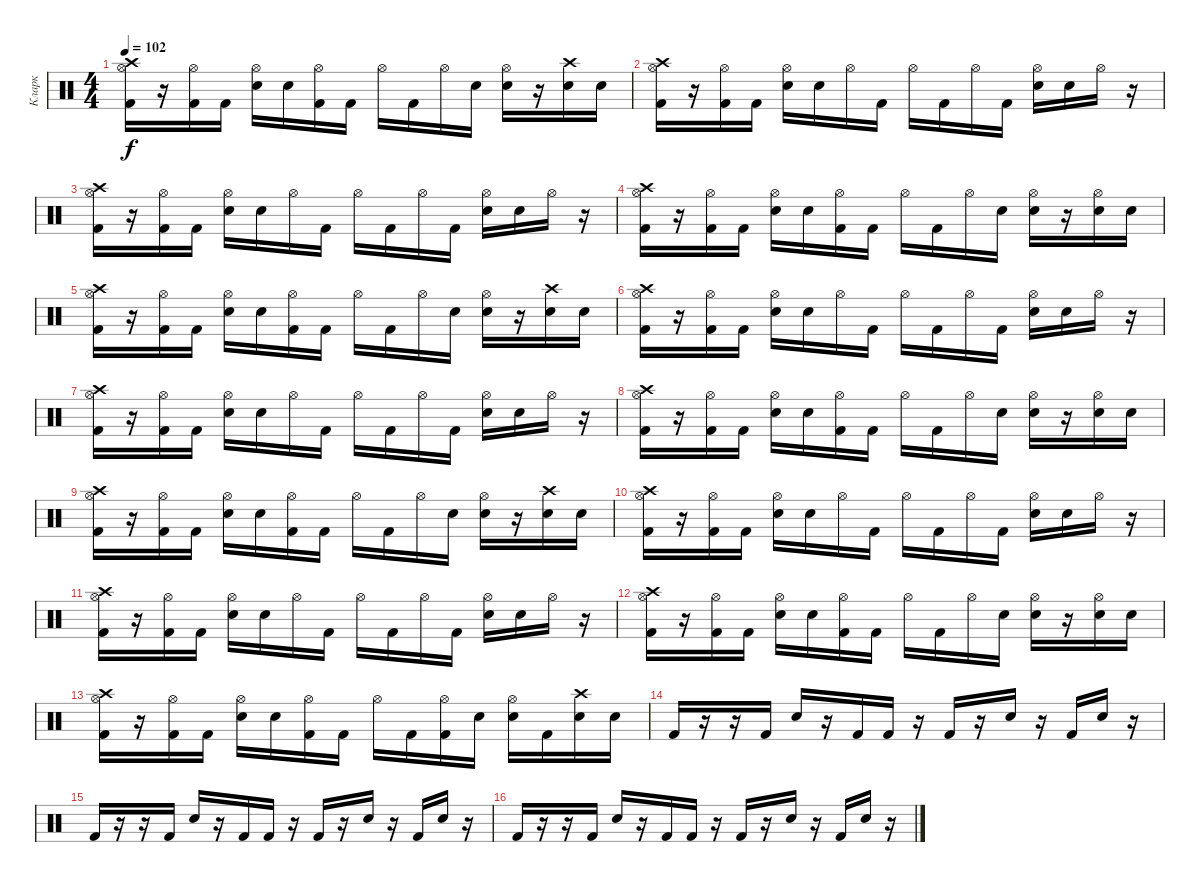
\track ("Кларк" "Кларк") {instrument percussion}
\staff {score}
\articulation defaults
\ts (4 4)
\tempo 102
\clef neutral
\ks c
("Hi-Hat (open)" "Crash high (hit)" "Kick (hit) 2").16{dy f} r.16 ("Hi-Hat (open)" "Kick (hit) 2").16 "Kick (hit) 2".16 ("Hi-Hat (open)" "Electric Snare (hit)").16 "Electric Snare (hit)".16 ("Hi-Hat (open)" "Kick (hit) 2").16 "Kick (hit) 2".16 "Hi-Hat (open)".16 "Kick (hit) 2".16 "Hi-Hat (open)".16 "Electric Snare (hit)".16 ("Hi-Hat (open)" "Electric Snare (hit)").16 r.16 ("Crash high (hit)" "Electric Snare (hit)").16 "Electric Snare (hit)".16 |
("Hi-Hat (open)" "Crash high (hit)" "Kick (hit) 2").16 r.16 ("Hi-Hat (open)" "Kick (hit) 2").16 "Kick (hit) 2".16 ("Hi-Hat (open)" "Electric Snare (hit)").16 "Electric Snare (hit)".16 "Hi-Hat (open)".16 "Kick (hit) 2".16 "Hi-Hat (open)".16 "Kick (hit) 2".16 "Hi-Hat (open)".16 "Kick (hit) 2".16 ("Hi-Hat (open)" "Electric Snare (hit)").16 "Electric Snare (hit)".16 "Hi-Hat (open)".16 r.16 |
("Hi-Hat (open)" "Crash high (hit)" "Kick (hit) 2").16 r.16 ("Hi-Hat (open)" "Kick (hit) 2").16 "Kick (hit) 2".16 ("Hi-Hat (open)" "Electric Snare (hit)").16 "Electric Snare (hit)".16 "Hi-Hat (open)".16 "Kick (hit) 2".16 "Hi-Hat (open)".16 "Kick (hit) 2".16 "Hi-Hat (open)".16 "Kick (hit) 2".16 ("Hi-Hat (open)" "Electric Snare (hit)").16 "Electric Snare (hit)".16 "Hi-Hat (open)".16 r.16 |
("Hi-Hat (open)" "Crash high (hit)" "Kick (hit) 2").16 r.16 ("Hi-Hat (open)" "Kick (hit) 2").16 "Kick (hit) 2".16 ("Hi-Hat (open)" "Electric Snare (hit)").16 "Electric Snare (hit)".16 ("Hi-Hat (open)" "Kick (hit) 2").16 "Kick (hit) 2".16 "Hi-Hat (open)".16 "Kick (hit) 2".16 "Hi-Hat (open)".16 "Electric Snare (hit)".16 ("Hi-Hat (open)" "Electric Snare (hit)").16 r.16 ("Hi-Hat (open)" "Electric Snare (hit)").16 "Electric Snare (hit)".16 |
("Hi-Hat (open)" "Crash high (hit)" "Kick (hit) 2").16 r.16 ("Hi-Hat (open)" "Kick (hit) 2").16 "Kick (hit) 2".16 ("Hi-Hat (open)" "Electric Snare (hit)").16 "Electric Snare (hit)".16 ("Hi-Hat (open)" "Kick (hit) 2").16 "Kick (hit) 2".16 "Hi-Hat (open)".16 "Kick (hit) 2".16 "Hi-Hat (open)".16 "Electric Snare (hit)".16 ("Hi-Hat (open)" "Electric Snare (hit)").16 r.16 ("Crash high (hit)" "Electric Snare (hit)").16 "Electric Snare (hit)".16 |
("Hi-Hat (open)" "Crash high (hit)" "Kick (hit) 2").16 r.16 ("Hi-Hat (open)" "Kick (hit) 2").16 "Kick (hit) 2".16 ("Hi-Hat (open)" "Electric Snare (hit)").16 "Electric Snare (hit)".16 "Hi-Hat (open)".16 "Kick (hit) 2".16 "Hi-Hat (open)".16 "Kick (hit) 2".16 "Hi-Hat (open)".16 "Kick (hit) 2".16 ("Hi-Hat (open)" "Electric Snare (hit)").16 "Electric Snare (hit)".16 "Hi-Hat (open)".16 r.16 |
("Hi-Hat (open)" "Crash high (hit)" "Kick (hit) 2").16 r.16 ("Hi-Hat (open)" "Kick (hit) 2").16 "Kick (hit) 2".16 ("Hi-Hat (open)" "Electric Snare (hit)").16 "Electric Snare (hit)".16 "Hi-Hat (open)".16 "Kick (hit) 2".16 "Hi-Hat (open)".16 "Kick (hit) 2".16 "Hi-Hat (open)".16 "Kick (hit) 2".16 ("Hi-Hat (open)" "Electric Snare (hit)").16 "Electric Snare (hit)".16 "Hi-Hat (open)".16 r.16 |
("Hi-Hat (open)" "Crash high (hit)" "Kick (hit) 2").16 r.16 ("Hi-Hat (open)" "Kick (hit) 2").16 "Kick (hit) 2".16 ("Hi-Hat (open)" "Electric Snare (hit)").16 "Electric Snare (hit)".16 ("Hi-Hat (open)" "Kick (hit) 2").16 "Kick (hit) 2".16 "Hi-Hat (open)".16 "Kick (hit) 2".16 "Hi-Hat (open)".16 "Electric Snare (hit)".16 ("Hi-Hat (open)" "Electric Snare (hit)").16 r.16 ("Hi-Hat (open)" "Electric Snare (hit)").16 "Electric Snare (hit)".16 |
("Hi-Hat (open)" "Crash high (hit)" "Kick (hit) 2").16 r.16 ("Hi-Hat (open)" "Kick (hit) 2").16 "Kick (hit) 2".16 ("Hi-Hat (open)" "Electric Snare (hit)").16 "Electric Snare (hit)".16 ("Hi-Hat (open)" "Kick (hit) 2").16 "Kick (hit) 2".16 "Hi-Hat (open)".16 "Kick (hit) 2".16 "Hi-Hat (open)".16 "Electric Snare (hit)".16 ("Hi-Hat (open)" "Electric Snare (hit)").16 r.16 ("Crash high (hit)" "Electric Snare (hit)").16 "Electric Snare (hit)".16 |
("Hi-Hat (open)" "Crash high (hit)" "Kick (hit) 2").16 r.16 ("Hi-Hat (open)" "Kick (hit) 2").16 "Kick (hit) 2".16 ("Hi-Hat (open)" "Electric Snare (hit)").16 "Electric Snare (hit)".16 "Hi-Hat (open)".16 "Kick (hit) 2".16 "Hi-Hat (open)".16 "Kick (hit) 2".16 "Hi-Hat (open)".16 "Kick (hit) 2".16 ("Hi-Hat (open)" "Electric Snare (hit)").16 "Electric Snare (hit)".16 "Hi-Hat (open)".16 r.16 |
("Hi-Hat (open)" "Crash high (hit)" "Kick (hit) 2").16 r.16 ("Hi-Hat (open)" "Kick (hit) 2").16 "Kick (hit) 2".16 ("Hi-Hat (open)" "Electric Snare (hit)").16 "Electric Snare (hit)".16 "Hi-Hat (open)".16 "Kick (hit) 2".16 "Hi-Hat (open)".16 "Kick (hit) 2".16 "Hi-Hat (open)".16 "Kick (hit) 2".16 ("Hi-Hat (open)" "Electric Snare (hit)").16 "Electric Snare (hit)".16 "Hi-Hat (open)".16 r.16 |
("Hi-Hat (open)" "Crash high (hit)" "Kick (hit) 2").16 r.16 ("Hi-Hat (open)" "Kick (hit) 2").16 "Kick (hit) 2".16 ("Hi-Hat (open)" "Electric Snare (hit)").16 "Electric Snare (hit)".16 ("Hi-Hat (open)" "Kick (hit) 2").16 "Kick (hit) 2".16 "Hi-Hat (open)".16 "Kick (hit) 2".16 "Hi-Hat (open)".16 "Electric Snare (hit)".16 ("Hi-Hat (open)" "Electric Snare (hit)").16 r.16 ("Hi-Hat (open)" "Electric Snare (hit)").16 "Electric Snare (hit)".16 |
("Hi-Hat (open)" "Crash high (hit)" "Kick (hit) 2").16 r.16 ("Hi-Hat (open)" "Kick (hit) 2").16 "Kick (hit) 2".16 ("Hi-Hat (open)" "Electric Snare (hit)").16 "Electric Snare (hit)".16 ("Hi-Hat (open)" "Kick (hit) 2").16 "Kick (hit) 2".16 "Hi-Hat (open)".16 "Kick (hit) 2".16 ("Hi-Hat (open)" "Kick (hit) 2").16 "Electric Snare (hit)".16 ("Hi-Hat (open)" "Electric Snare (hit)").16 "Kick (hit) 2".16 ("Crash high (hit)" "Electric Snare (hit)").16 "Electric Snare (hit)".16 |
"Kick (hit) 2".16{volume 16} r.16 r.16 "Kick (hit) 2".16 "Electric Snare (hit)".16 r.16 "Kick (hit) 2".16 "Kick (hit) 2".16 r.16 "Kick (hit) 2".16 r.16 "Electric Snare (hit)".16 r.16 "Kick (hit) 2".16 "Electric Snare (hit)".16 r.16 |
"Kick (hit) 2".16 r.16 r.16 "Kick (hit) 2".16 "Electric Snare (hit)".16 r.16 "Kick (hit) 2".16 "Kick (hit) 2".16 r.16 "Kick (hit) 2".16 r.16 "Electric Snare (hit)".16 r.16 "Kick (hit) 2".16 "Electric Snare (hit)".16 r.16 |
"Kick (hit) 2".16 r.16 r.16 "Kick (hit) 2".16 "Electric Snare (hit)".16 r.16 "Kick (hit) 2".16 "Kick (hit) 2".16 r.16 "Kick (hit) 2".16 r.16 "Electric Snare (hit)".16 r.16 "Kick (hit) 2".16 "Electric Snare (hit)".16 r.16
